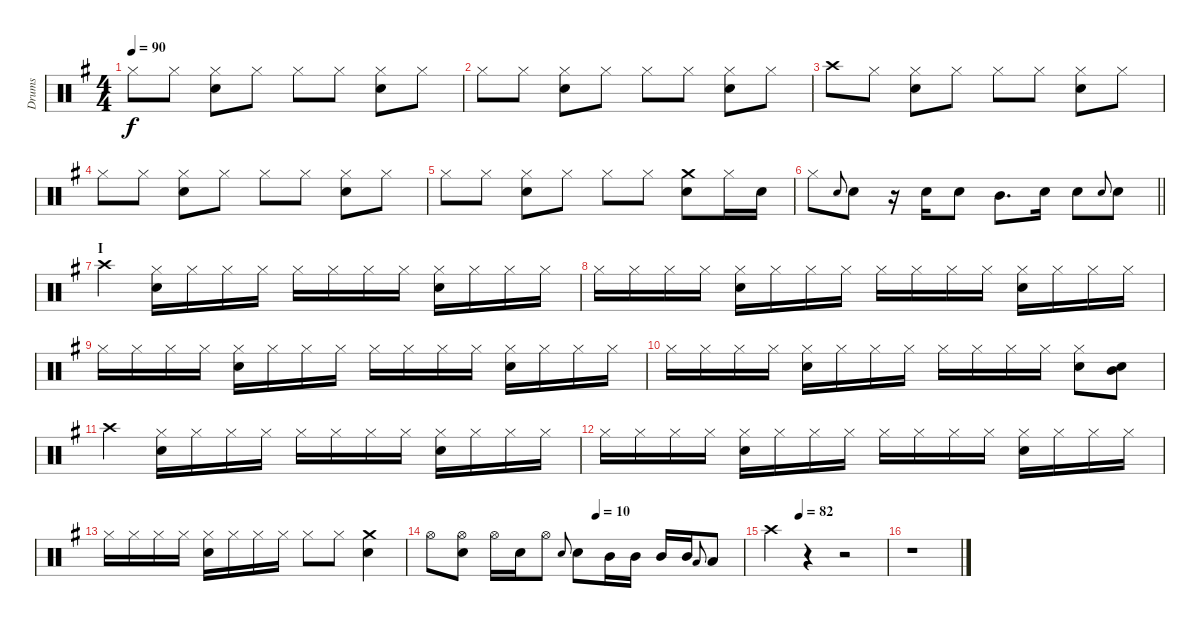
\track ("Drums" "Drums") {instrument percussion}
\staff {score}
\articulation defaults
\ts (4 4)
\tempo 90
\clef neutral
\ks g "Hi-Hat (closed)".8{dy f} "Hi-Hat (closed)".8
("Hi-Hat (closed)" "Snare (hit) 2").8 "Hi-Hat (closed)".8 "Hi-Hat (closed)".8 "Hi-Hat (closed)".8 ("Hi-Hat (closed)" "Snare (hit) 2").8 "Hi-Hat (closed)".8 |
"Hi-Hat (closed)".8 "Hi-Hat (closed)".8 ("Hi-Hat (closed)" "Snare (hit) 2").8 "Hi-Hat (closed)".8 "Hi-Hat (closed)".8 "Hi-Hat (closed)".8 ("Hi-Hat (closed)" "Snare (hit) 2").8 "Hi-Hat (closed)".8 |
"Crash high (hit)".8 "Hi-Hat (closed)".8 ("Hi-Hat (closed)" "Snare (hit) 2").8 "Hi-Hat (closed)".8 "Hi-Hat (closed)".8 "Hi-Hat (closed)".8 ("Hi-Hat (closed)" "Snare (hit) 2").8 "Hi-Hat (closed)".8 |
"Hi-Hat (closed)".8 "Hi-Hat (closed)".8 ("Hi-Hat (closed)" "Snare (hit) 2").8 "Hi-Hat (closed)".8 "Hi-Hat (closed)".8 "Hi-Hat (closed)".8 ("Hi-Hat (closed)" "Snare (hit) 2").8 "Hi-Hat (closed)".8 |
"Hi-Hat (closed)".8 "Hi-Hat (closed)".8 ("Hi-Hat (closed)" "Snare (hit) 2").8 "Hi-Hat (closed)".8 "Hi-Hat (closed)".8 "Hi-Hat (closed)".8 ("Crash medium (hit)" "Snare (hit) 2").8 "Hi-Hat (closed)".16 "Snare (hit) 2".16 |
\barLineRight lightlight "Hi-Hat (closed)".8 "Snare (hit) 2".8{gr onbeat} "Snare (hit) 2".8
r.16 "Snare (hit) 2".16 "Snare (hit) 2".8 "Mid Tom (hit)".8{d} "Snare (hit) 2".16 "Snare (hit) 2".8 "Snare (hit) 2".8{gr onbeat} "Snare (hit) 2".8 |
\section ("" "I")
"Crash high (hit)".4 ("Hi-Hat (closed)" "Snare (hit) 2").16 "Hi-Hat (closed)".16 "Hi-Hat (closed)".16 "Hi-Hat (closed)".16 "Hi-Hat (closed)".16 "Hi-Hat (closed)".16 "Hi-Hat (closed)".16 "Hi-Hat (closed)".16 ("Hi-Hat (closed)" "Snare (hit) 2").16 "Hi-Hat (closed)".16 "Hi-Hat (closed)".16 "Hi-Hat (closed)".16 |
"Hi-Hat (closed)".16 "Hi-Hat (closed)".16 "Hi-Hat (closed)".16 "Hi-Hat (closed)".16 ("Hi-Hat (closed)" "Snare (hit) 2").16 "Hi-Hat (closed)".16 "Hi-Hat (closed)".16 "Hi-Hat (closed)".16 "Hi-Hat (closed)".16 "Hi-Hat (closed)".16 "Hi-Hat (closed)".16 "Hi-Hat (closed)".16 ("Hi-Hat (closed)" "Snare (hit) 2").16 "Hi-Hat (closed)".16 "Hi-Hat (closed)".16 "Hi-Hat (closed)".16 |
"Hi-Hat (closed)".16 "Hi-Hat (closed)".16 "Hi-Hat (closed)".16 "Hi-Hat (closed)".16 ("Hi-Hat (closed)" "Snare (hit) 2").16 "Hi-Hat (closed)".16 "Hi-Hat (closed)".16 "Hi-Hat (closed)".16 "Hi-Hat (closed)".16 "Hi-Hat (closed)".16 "Hi-Hat (closed)".16 "Hi-Hat (closed)".16 ("Hi-Hat (closed)" "Snare (hit) 2").16 "Hi-Hat (closed)".16 "Hi-Hat (closed)".16 "Hi-Hat (closed)".16 |
"Hi-Hat (closed)".16 "Hi-Hat (closed)".16 "Hi-Hat (closed)".16 "Hi-Hat (closed)".16 ("Hi-Hat (closed)" "Snare (hit) 2").16 "Hi-Hat (closed)".16 "Hi-Hat (closed)".16 "Hi-Hat (closed)".16 "Hi-Hat (closed)".16 "Hi-Hat (closed)".16 "Hi-Hat (closed)".16 "Hi-Hat (closed)".16 ("Hi-Hat (closed)" "Snare (hit) 2").8 ("Mid Tom (hit)" "Snare (hit) 2").8 |
"Crash high (hit)".4 ("Hi-Hat (closed)" "Snare (hit) 2").16 "Hi-Hat (closed)".16 "Hi-Hat (closed)".16 "Hi-Hat (closed)".16 "Hi-Hat (closed)".16 "Hi-Hat (closed)".16 "Hi-Hat (closed)".16 "Hi-Hat (closed)".16 ("Hi-Hat (closed)" "Snare (hit) 2").16 "Hi-Hat (closed)".16 "Hi-Hat (closed)".16 "Hi-Hat (closed)".16 |
"Hi-Hat (closed)".16 "Hi-Hat (closed)".16 "Hi-Hat (closed)".16 "Hi-Hat (closed)".16 ("Hi-Hat (closed)" "Snare (hit) 2").16 "Hi-Hat (closed)".16 "Hi-Hat (closed)".16 "Hi-Hat (closed)".16 "Hi-Hat (closed)".16 "Hi-Hat (closed)".16 "Hi-Hat (closed)".16 "Hi-Hat (closed)".16 ("Hi-Hat (closed)" "Snare (hit) 2").16 "Hi-Hat (closed)".16 "Hi-Hat (closed)".16 "Hi-Hat (closed)".16 |
"Hi-Hat (closed)".16 "Hi-Hat (closed)".16 "Hi-Hat (closed)".16 "Hi-Hat (closed)".16 ("Hi-Hat (closed)" "Snare (hit) 2").16 "Hi-Hat (closed)".16 "Hi-Hat (closed)".16 "Hi-Hat (closed)".16 "Hi-Hat (closed)".8 "Hi-Hat (closed)".8 ("Crash medium (hit)" "Snare (hit) 2").4 |
\tempo (10 0.53125)
"Hi-Hat (open)".8 ("Hi-Hat (open)" "Snare (hit) 2").8 "Hi-Hat (open)".16 "Snare (hit) 2".16 "Hi-Hat (open)".8 "Snare (hit) 2".8{gr onbeat} "Snare (hit) 2".8 "Mid Tom (hit)".16 "Mid Tom (hit)".16 "Mid Tom (hit)".16 "Mid Tom (hit)".16 "Low Tom (hit)".8{gr onbeat} "Low Tom (hit)".8 |
\tempo (82 0.25)
"Crash high (hit)".4 r.4 r.2 |
r.1
